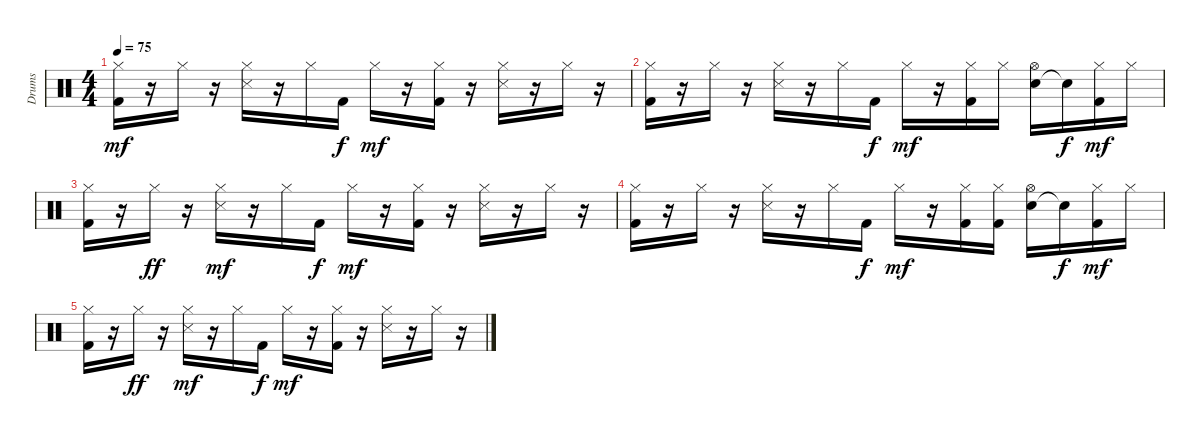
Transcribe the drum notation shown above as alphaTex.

\track ("Drums" "Drums") {instrument percussion}
\staff {score}
\articulation defaults
\ts (4 4)
\tempo 75
\clef neutral
\ks c
("Kick (hit) 2" "Hi-Hat (closed)").16{dy mf} r.16 "Hi-Hat (closed)".16 r.16 ("Snare (side stick) 3" "Hi-Hat (closed)").16 r.16 "Hi-Hat (closed)".16 "Kick (hit) 2".16{dy f} "Hi-Hat (closed)".16{dy mf} r.16 ("Kick (hit) 2" "Hi-Hat (closed)").16 r.16 ("Snare (side stick) 3" "Hi-Hat (closed)").16 r.16 "Hi-Hat (closed)".16 r.16 |
("Kick (hit) 2" "Hi-Hat (closed)").16 r.16 "Hi-Hat (closed)".16 r.16 ("Snare (side stick) 3" "Hi-Hat (closed)").16 r.16 "Hi-Hat (closed)".16 "Kick (hit) 2".16{dy f} "Hi-Hat (closed)".16{dy mf} r.16 ("Kick (hit) 2" "Hi-Hat (closed)").16 "Hi-Hat (closed)".16 ("Electric Snare (hit)" "Hi-Hat (open)").16 "Snare (hit)"{t}.16{dy f} ("Kick (hit) 2" "Hi-Hat (closed)").16{dy mf} "Hi-Hat (closed)".16 |
("Kick (hit) 2" "Hi-Hat (closed)").16 r.16 "Hi-Hat (closed)".16{dy ff} r.16 ("Snare (side stick) 3" "Hi-Hat (closed)").16{dy mf} r.16 "Hi-Hat (closed)".16 "Kick (hit) 2".16{dy f} "Hi-Hat (closed)".16{dy mf} r.16 ("Kick (hit) 2" "Hi-Hat (closed)").16 r.16 ("Snare (side stick) 3" "Hi-Hat (closed)").16 r.16 "Hi-Hat (closed)".16 r.16 |
("Kick (hit) 2" "Hi-Hat (closed)").16 r.16 "Hi-Hat (closed)".16 r.16 ("Snare (side stick) 3" "Hi-Hat (closed)").16 r.16 "Hi-Hat (closed)".16 "Kick (hit) 2".16{dy f} "Hi-Hat (closed)".16{dy mf} r.16 ("Kick (hit) 2" "Hi-Hat (closed)").16 ("Kick (hit) 2" "Hi-Hat (closed)").16 ("Electric Snare (hit)" "Hi-Hat (open)").16 "Snare (hit)"{t}.16{dy f} ("Kick (hit) 2" "Hi-Hat (closed)").16{dy mf} "Hi-Hat (closed)".16 |
("Kick (hit) 2" "Hi-Hat (closed)").16 r.16 "Hi-Hat (closed)".16{dy ff} r.16 ("Snare (side stick) 3" "Hi-Hat (closed)").16{dy mf} r.16 "Hi-Hat (closed)".16 "Kick (hit) 2".16{dy f} "Hi-Hat (closed)".16{dy mf} r.16 ("Kick (hit) 2" "Hi-Hat (closed)").16 r.16 ("Snare (side stick) 3" "Hi-Hat (closed)").16 r.16 "Hi-Hat (closed)".16 r.16
